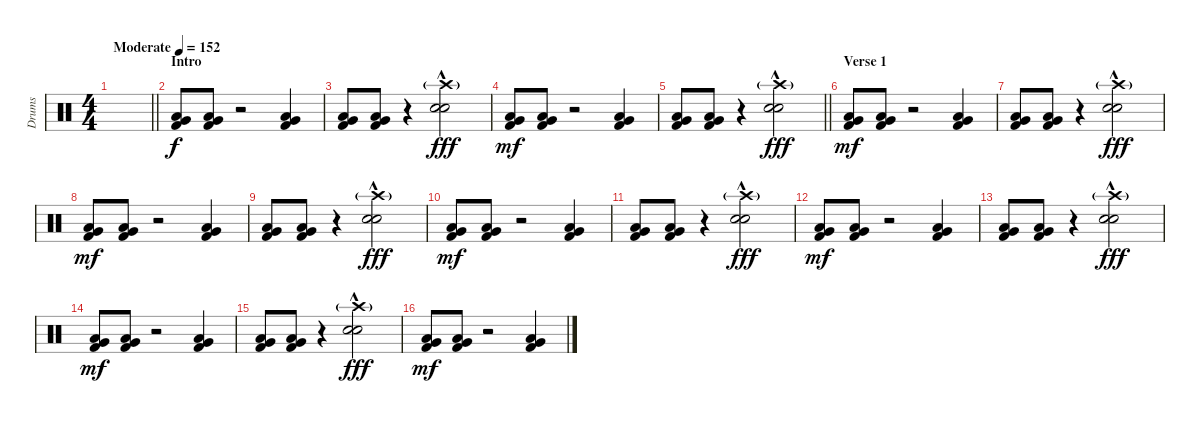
\track ("Drums" "Drums") {instrument percussion}
\staff {score}
\articulation defaults
\ts (4 4)
\tempo (152 "Moderate")
\clef neutral
\barLineRight lightlight
\ks c
|
\section ("" "Intro")
("Very Low Tom (hit)" "Low Floor Tom (hit)" "Kick (hit) 2").8 ("Very Low Tom (hit)" "Low Floor Tom (hit)" "Kick (hit) 2").8 r.2 ("Very Low Tom (hit)" "Low Floor Tom (hit)" "Kick (hit) 2").4 |
("Very Low Tom (hit)" "Low Floor Tom (hit)" "Kick (hit) 2").8 ("Very Low Tom (hit)" "Low Floor Tom (hit)" "Kick (hit) 2").8 r.4 ("Crash high (hit)"{g} "Electric Snare (hit)"{hac} "Snare (hit) 2"{hac}).2{dy fff} |
("Very Low Tom (hit)" "Low Floor Tom (hit)" "Kick (hit) 2").8{dy mf} ("Very Low Tom (hit)" "Low Floor Tom (hit)" "Kick (hit) 2").8 r.2 ("Very Low Tom (hit)" "Low Floor Tom (hit)" "Kick (hit) 2").4 |
\barLineRight lightlight
("Very Low Tom (hit)" "Low Floor Tom (hit)" "Kick (hit) 2").8 ("Very Low Tom (hit)" "Low Floor Tom (hit)" "Kick (hit) 2").8 r.4 ("Crash high (hit)"{g} "Electric Snare (hit)"{hac} "Snare (hit) 2"{hac}).2{dy fff} |
\section ("" "Verse 1")
("Very Low Tom (hit)" "Low Floor Tom (hit)" "Kick (hit) 2").8{dy mf} ("Very Low Tom (hit)" "Low Floor Tom (hit)" "Kick (hit) 2").8 r.2 ("Very Low Tom (hit)" "Low Floor Tom (hit)" "Kick (hit) 2").4 |
("Very Low Tom (hit)" "Low Floor Tom (hit)" "Kick (hit) 2").8 ("Very Low Tom (hit)" "Low Floor Tom (hit)" "Kick (hit) 2").8 r.4 ("Crash high (hit)"{g} "Electric Snare (hit)"{hac} "Snare (hit) 2"{hac}).2{dy fff} |
("Very Low Tom (hit)" "Low Floor Tom (hit)" "Kick (hit) 2").8{dy mf} ("Very Low Tom (hit)" "Low Floor Tom (hit)" "Kick (hit) 2").8 r.2 ("Very Low Tom (hit)" "Low Floor Tom (hit)" "Kick (hit) 2").4 |
("Very Low Tom (hit)" "Low Floor Tom (hit)" "Kick (hit) 2").8 ("Very Low Tom (hit)" "Low Floor Tom (hit)" "Kick (hit) 2").8 r.4 ("Crash high (hit)"{g} "Electric Snare (hit)"{hac} "Snare (hit) 2"{hac}).2{dy fff} |
("Very Low Tom (hit)" "Low Floor Tom (hit)" "Kick (hit) 2").8{dy mf} ("Very Low Tom (hit)" "Low Floor Tom (hit)" "Kick (hit) 2").8 r.2 ("Very Low Tom (hit)" "Low Floor Tom (hit)" "Kick (hit) 2").4 |
("Very Low Tom (hit)" "Low Floor Tom (hit)" "Kick (hit) 2").8 ("Very Low Tom (hit)" "Low Floor Tom (hit)" "Kick (hit) 2").8 r.4 ("Crash high (hit)"{g} "Electric Snare (hit)"{hac} "Snare (hit) 2"{hac}).2{dy fff} |
("Very Low Tom (hit)" "Low Floor Tom (hit)" "Kick (hit) 2").8{dy mf} ("Very Low Tom (hit)" "Low Floor Tom (hit)" "Kick (hit) 2").8 r.2 ("Very Low Tom (hit)" "Low Floor Tom (hit)" "Kick (hit) 2").4 |
("Very Low Tom (hit)" "Low Floor Tom (hit)" "Kick (hit) 2").8 ("Very Low Tom (hit)" "Low Floor Tom (hit)" "Kick (hit) 2").8 r.4 ("Crash high (hit)"{g} "Electric Snare (hit)"{hac} "Snare (hit) 2"{hac}).2{dy fff} |
("Very Low Tom (hit)" "Low Floor Tom (hit)" "Kick (hit) 2").8{dy mf} ("Very Low Tom (hit)" "Low Floor Tom (hit)" "Kick (hit) 2").8 r.2 ("Very Low Tom (hit)" "Low Floor Tom (hit)" "Kick (hit) 2").4 |
("Very Low Tom (hit)" "Low Floor Tom (hit)" "Kick (hit) 2").8 ("Very Low Tom (hit)" "Low Floor Tom (hit)" "Kick (hit) 2").8 r.4 ("Crash high (hit)"{g} "Electric Snare (hit)"{hac} "Snare (hit) 2"{hac}).2{dy fff} |
("Very Low Tom (hit)" "Low Floor Tom (hit)" "Kick (hit) 2").8{dy mf} ("Very Low Tom (hit)" "Low Floor Tom (hit)" "Kick (hit) 2").8 r.2 ("Very Low Tom (hit)" "Low Floor Tom (hit)" "Kick (hit) 2").4
